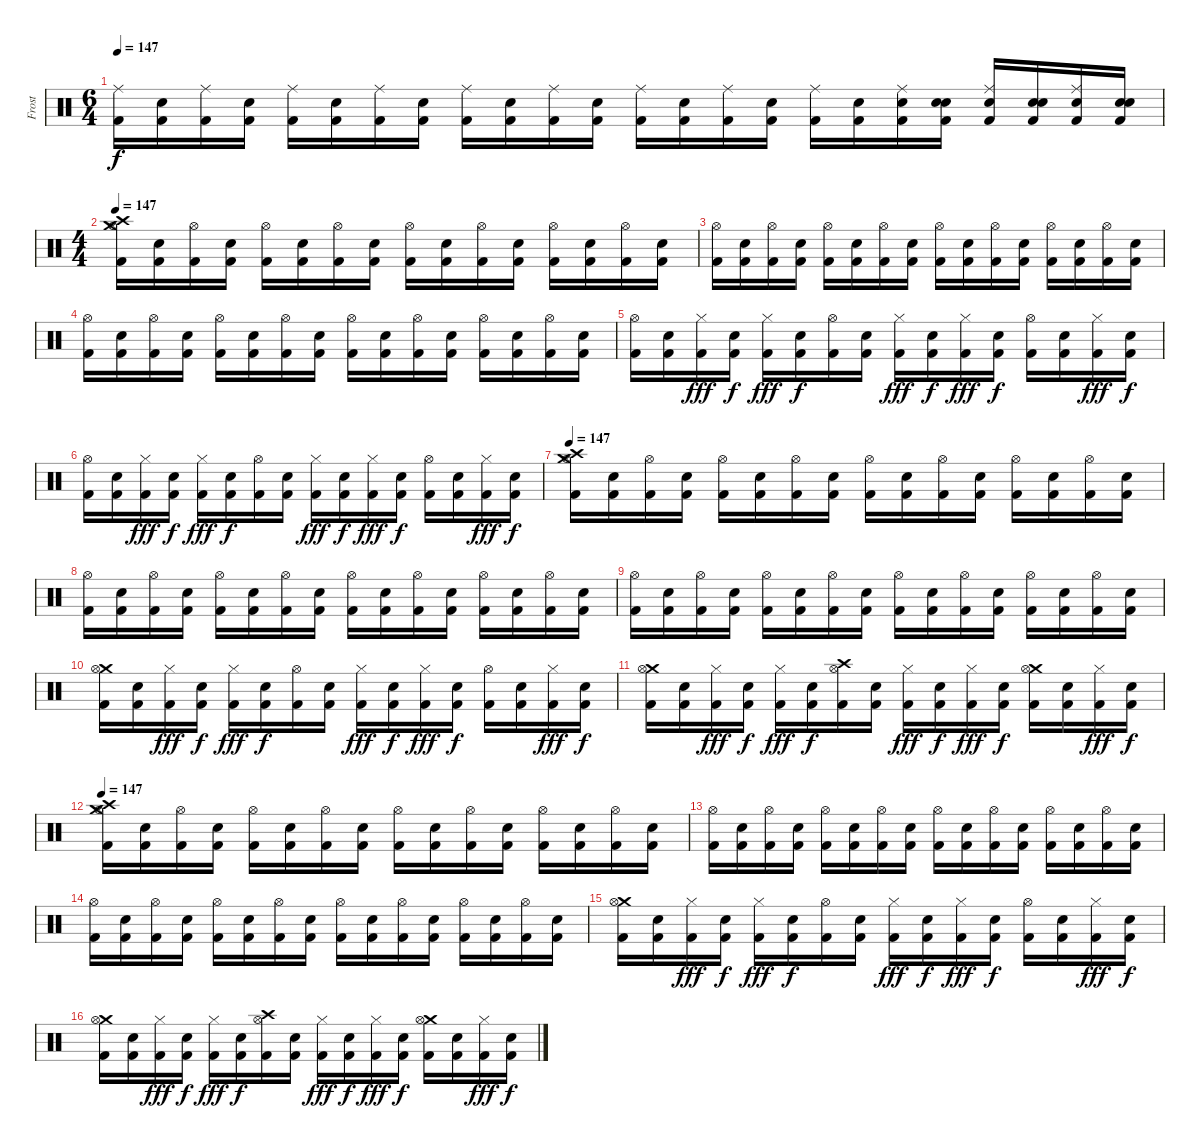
\track ("Frost" "Frost") {instrument percussion}
\staff {score}
\articulation defaults
\ts (6 4)
\tempo 147
\clef neutral
\ks c
("Kick (hit) 2" "Ride (middle)").16{dy f} ("Kick (hit) 2" "Electric Snare (hit)").16 ("Kick (hit) 2" "Ride (middle)").16 ("Kick (hit) 2" "Electric Snare (hit)").16 ("Kick (hit) 2" "Ride (middle)").16 ("Kick (hit) 2" "Electric Snare (hit)").16 ("Kick (hit) 2" "Ride (middle)").16 ("Kick (hit) 2" "Electric Snare (hit)").16 ("Kick (hit) 2" "Ride (middle)").16 ("Kick (hit) 2" "Electric Snare (hit)").16 ("Kick (hit) 2" "Ride (middle)").16 ("Kick (hit) 2" "Electric Snare (hit)").16 ("Kick (hit) 2" "Ride (middle)").16 ("Kick (hit) 2" "Electric Snare (hit)").16 ("Kick (hit) 2" "Ride (middle)").16 ("Kick (hit) 2" "Electric Snare (hit)").16 ("Kick (hit) 2" "Ride (middle)").16 ("Kick (hit) 2" "Electric Snare (hit)").16 ("Kick (hit) 2" "Snare (hit) 2" "Ride (middle)").16 ("Kick (hit) 2" "Snare (hit) 2" "Electric Snare (hit)").16 ("Kick (hit) 2" "Snare (hit) 2" "Ride (middle)").16 ("Kick (hit) 2" "Snare (hit) 2" "Electric Snare (hit)").16 ("Kick (hit) 2" "Snare (hit) 2" "Ride (middle)").16 ("Kick (hit) 2" "Snare (hit) 2" "Electric Snare (hit)").16 |
\ts (4 4)
\tempo 147
("Kick (hit) 2" "Crash high (hit)" "Crash medium (hit)" "Hi-Hat (open)").16 ("Kick (hit) 2" "Electric Snare (hit)").16 ("Kick (hit) 2" "Hi-Hat (open)").16 ("Kick (hit) 2" "Electric Snare (hit)").16 ("Kick (hit) 2" "Hi-Hat (open)").16 ("Kick (hit) 2" "Electric Snare (hit)").16 ("Kick (hit) 2" "Hi-Hat (open)").16 ("Kick (hit) 2" "Electric Snare (hit)").16 ("Kick (hit) 2" "Hi-Hat (open)").16 ("Kick (hit) 2" "Electric Snare (hit)").16 ("Kick (hit) 2" "Hi-Hat (open)").16 ("Kick (hit) 2" "Electric Snare (hit)").16 ("Kick (hit) 2" "Hi-Hat (open)").16 ("Kick (hit) 2" "Electric Snare (hit)").16 ("Kick (hit) 2" "Hi-Hat (open)").16 ("Kick (hit) 2" "Electric Snare (hit)").16 |
("Kick (hit) 2" "Hi-Hat (open)").16 ("Kick (hit) 2" "Electric Snare (hit)").16 ("Kick (hit) 2" "Hi-Hat (open)").16 ("Kick (hit) 2" "Electric Snare (hit)").16 ("Kick (hit) 2" "Hi-Hat (open)").16 ("Kick (hit) 2" "Electric Snare (hit)").16 ("Kick (hit) 2" "Hi-Hat (open)").16 ("Kick (hit) 2" "Electric Snare (hit)").16 ("Kick (hit) 2" "Hi-Hat (open)").16 ("Kick (hit) 2" "Electric Snare (hit)").16 ("Kick (hit) 2" "Hi-Hat (open)").16 ("Kick (hit) 2" "Electric Snare (hit)").16 ("Kick (hit) 2" "Hi-Hat (open)").16 ("Kick (hit) 2" "Electric Snare (hit)").16 ("Kick (hit) 2" "Hi-Hat (open)").16 ("Kick (hit) 2" "Electric Snare (hit)").16 |
("Kick (hit) 2" "Hi-Hat (open)").16 ("Kick (hit) 2" "Electric Snare (hit)").16 ("Kick (hit) 2" "Hi-Hat (open)").16 ("Kick (hit) 2" "Electric Snare (hit)").16 ("Kick (hit) 2" "Hi-Hat (open)").16 ("Kick (hit) 2" "Electric Snare (hit)").16 ("Kick (hit) 2" "Hi-Hat (open)").16 ("Kick (hit) 2" "Electric Snare (hit)").16 ("Kick (hit) 2" "Hi-Hat (open)").16 ("Kick (hit) 2" "Electric Snare (hit)").16 ("Kick (hit) 2" "Hi-Hat (open)").16 ("Kick (hit) 2" "Electric Snare (hit)").16 ("Kick (hit) 2" "Hi-Hat (open)").16 ("Kick (hit) 2" "Electric Snare (hit)").16 ("Kick (hit) 2" "Hi-Hat (open)").16 ("Kick (hit) 2" "Electric Snare (hit)").16 |
("Kick (hit) 2" "Hi-Hat (open)").16 ("Kick (hit) 2" "Electric Snare (hit)").16 ("Kick (hit) 2" "Hi-Hat (closed)").16{dy fff} ("Kick (hit) 2" "Electric Snare (hit)").16{dy f} ("Kick (hit) 2" "Hi-Hat (closed)").16{dy fff} ("Kick (hit) 2" "Electric Snare (hit)").16{dy f} ("Kick (hit) 2" "Hi-Hat (open)").16 ("Kick (hit) 2" "Electric Snare (hit)").16 ("Kick (hit) 2" "Hi-Hat (closed)").16{dy fff} ("Kick (hit) 2" "Electric Snare (hit)").16{dy f} ("Kick (hit) 2" "Hi-Hat (closed)").16{dy fff} ("Kick (hit) 2" "Electric Snare (hit)").16{dy f} ("Kick (hit) 2" "Hi-Hat (open)").16 ("Kick (hit) 2" "Electric Snare (hit)").16 ("Kick (hit) 2" "Hi-Hat (closed)").16{dy fff} ("Kick (hit) 2" "Electric Snare (hit)").16{dy f} |
("Kick (hit) 2" "Hi-Hat (open)").16 ("Kick (hit) 2" "Electric Snare (hit)").16 ("Kick (hit) 2" "Hi-Hat (closed)").16{dy fff} ("Kick (hit) 2" "Electric Snare (hit)").16{dy f} ("Kick (hit) 2" "Hi-Hat (closed)").16{dy fff} ("Kick (hit) 2" "Electric Snare (hit)").16{dy f} ("Kick (hit) 2" "Hi-Hat (open)").16 ("Kick (hit) 2" "Electric Snare (hit)").16 ("Kick (hit) 2" "Hi-Hat (closed)").16{dy fff} ("Kick (hit) 2" "Electric Snare (hit)").16{dy f} ("Kick (hit) 2" "Hi-Hat (closed)").16{dy fff} ("Kick (hit) 2" "Electric Snare (hit)").16{dy f} ("Kick (hit) 2" "Hi-Hat (open)").16 ("Kick (hit) 2" "Electric Snare (hit)").16 ("Kick (hit) 2" "Hi-Hat (closed)").16{dy fff} ("Kick (hit) 2" "Electric Snare (hit)").16{dy f} |
\tempo 147
("Kick (hit) 2" "Crash high (hit)" "Crash medium (hit)" "Hi-Hat (open)").16 ("Kick (hit) 2" "Electric Snare (hit)").16 ("Kick (hit) 2" "Hi-Hat (open)").16 ("Kick (hit) 2" "Electric Snare (hit)").16 ("Kick (hit) 2" "Hi-Hat (open)").16 ("Kick (hit) 2" "Electric Snare (hit)").16 ("Kick (hit) 2" "Hi-Hat (open)").16 ("Kick (hit) 2" "Electric Snare (hit)").16 ("Kick (hit) 2" "Hi-Hat (open)").16 ("Kick (hit) 2" "Electric Snare (hit)").16 ("Kick (hit) 2" "Hi-Hat (open)").16 ("Kick (hit) 2" "Electric Snare (hit)").16 ("Kick (hit) 2" "Hi-Hat (open)").16 ("Kick (hit) 2" "Electric Snare (hit)").16 ("Kick (hit) 2" "Hi-Hat (open)").16 ("Kick (hit) 2" "Electric Snare (hit)").16 |
("Kick (hit) 2" "Hi-Hat (open)").16 ("Kick (hit) 2" "Electric Snare (hit)").16 ("Kick (hit) 2" "Hi-Hat (open)").16 ("Kick (hit) 2" "Electric Snare (hit)").16 ("Kick (hit) 2" "Hi-Hat (open)").16 ("Kick (hit) 2" "Electric Snare (hit)").16 ("Kick (hit) 2" "Hi-Hat (open)").16 ("Kick (hit) 2" "Electric Snare (hit)").16 ("Kick (hit) 2" "Hi-Hat (open)").16 ("Kick (hit) 2" "Electric Snare (hit)").16 ("Kick (hit) 2" "Hi-Hat (open)").16 ("Kick (hit) 2" "Electric Snare (hit)").16 ("Kick (hit) 2" "Hi-Hat (open)").16 ("Kick (hit) 2" "Electric Snare (hit)").16 ("Kick (hit) 2" "Hi-Hat (open)").16 ("Kick (hit) 2" "Electric Snare (hit)").16 |
("Kick (hit) 2" "Hi-Hat (open)").16 ("Kick (hit) 2" "Electric Snare (hit)").16 ("Kick (hit) 2" "Hi-Hat (open)").16 ("Kick (hit) 2" "Electric Snare (hit)").16 ("Kick (hit) 2" "Hi-Hat (open)").16 ("Kick (hit) 2" "Electric Snare (hit)").16 ("Kick (hit) 2" "Hi-Hat (open)").16 ("Kick (hit) 2" "Electric Snare (hit)").16 ("Kick (hit) 2" "Hi-Hat (open)").16 ("Kick (hit) 2" "Electric Snare (hit)").16 ("Kick (hit) 2" "Hi-Hat (open)").16 ("Kick (hit) 2" "Electric Snare (hit)").16 ("Kick (hit) 2" "Hi-Hat (open)").16 ("Kick (hit) 2" "Electric Snare (hit)").16 ("Kick (hit) 2" "Hi-Hat (open)").16 ("Kick (hit) 2" "Electric Snare (hit)").16 |
("Kick (hit) 2" "Crash medium (hit)" "Hi-Hat (open)").16 ("Kick (hit) 2" "Electric Snare (hit)").16 ("Kick (hit) 2" "Hi-Hat (closed)").16{dy fff} ("Kick (hit) 2" "Electric Snare (hit)").16{dy f} ("Kick (hit) 2" "Hi-Hat (closed)").16{dy fff} ("Kick (hit) 2" "Electric Snare (hit)").16{dy f} ("Kick (hit) 2" "Hi-Hat (open)").16 ("Kick (hit) 2" "Electric Snare (hit)").16 ("Kick (hit) 2" "Hi-Hat (closed)").16{dy fff} ("Kick (hit) 2" "Electric Snare (hit)").16{dy f} ("Kick (hit) 2" "Hi-Hat (closed)").16{dy fff} ("Kick (hit) 2" "Electric Snare (hit)").16{dy f} ("Kick (hit) 2" "Hi-Hat (open)").16 ("Kick (hit) 2" "Electric Snare (hit)").16 ("Kick (hit) 2" "Hi-Hat (closed)").16{dy fff} ("Kick (hit) 2" "Electric Snare (hit)").16{dy f} |
("Kick (hit) 2" "Crash medium (hit)" "Hi-Hat (open)").16 ("Kick (hit) 2" "Electric Snare (hit)").16 ("Kick (hit) 2" "Hi-Hat (closed)").16{dy fff} ("Kick (hit) 2" "Electric Snare (hit)").16{dy f} ("Kick (hit) 2" "Hi-Hat (closed)").16{dy fff} ("Kick (hit) 2" "Electric Snare (hit)").16{dy f} ("Kick (hit) 2" "Crash high (hit)" "Hi-Hat (open)").16 ("Kick (hit) 2" "Electric Snare (hit)").16 ("Kick (hit) 2" "Hi-Hat (closed)").16{dy fff} ("Kick (hit) 2" "Electric Snare (hit)").16{dy f} ("Kick (hit) 2" "Hi-Hat (closed)").16{dy fff} ("Kick (hit) 2" "Electric Snare (hit)").16{dy f} ("Kick (hit) 2" "Crash medium (hit)" "Hi-Hat (open)").16 ("Kick (hit) 2" "Electric Snare (hit)").16 ("Kick (hit) 2" "Hi-Hat (closed)").16{dy fff} ("Kick (hit) 2" "Electric Snare (hit)").16{dy f} |
\tempo 147
("Kick (hit) 2" "Crash high (hit)" "Crash medium (hit)" "Hi-Hat (open)").16 ("Kick (hit) 2" "Electric Snare (hit)").16 ("Kick (hit) 2" "Hi-Hat (open)").16 ("Kick (hit) 2" "Electric Snare (hit)").16 ("Kick (hit) 2" "Hi-Hat (open)").16 ("Kick (hit) 2" "Electric Snare (hit)").16 ("Kick (hit) 2" "Hi-Hat (open)").16 ("Kick (hit) 2" "Electric Snare (hit)").16 ("Kick (hit) 2" "Hi-Hat (open)").16 ("Kick (hit) 2" "Electric Snare (hit)").16 ("Kick (hit) 2" "Hi-Hat (open)").16 ("Kick (hit) 2" "Electric Snare (hit)").16 ("Kick (hit) 2" "Hi-Hat (open)").16 ("Kick (hit) 2" "Electric Snare (hit)").16 ("Kick (hit) 2" "Hi-Hat (open)").16 ("Kick (hit) 2" "Electric Snare (hit)").16 |
("Kick (hit) 2" "Hi-Hat (open)").16 ("Kick (hit) 2" "Electric Snare (hit)").16 ("Kick (hit) 2" "Hi-Hat (open)").16 ("Kick (hit) 2" "Electric Snare (hit)").16 ("Kick (hit) 2" "Hi-Hat (open)").16 ("Kick (hit) 2" "Electric Snare (hit)").16 ("Kick (hit) 2" "Hi-Hat (open)").16 ("Kick (hit) 2" "Electric Snare (hit)").16 ("Kick (hit) 2" "Hi-Hat (open)").16 ("Kick (hit) 2" "Electric Snare (hit)").16 ("Kick (hit) 2" "Hi-Hat (open)").16 ("Kick (hit) 2" "Electric Snare (hit)").16 ("Kick (hit) 2" "Hi-Hat (open)").16 ("Kick (hit) 2" "Electric Snare (hit)").16 ("Kick (hit) 2" "Hi-Hat (open)").16 ("Kick (hit) 2" "Electric Snare (hit)").16 |
("Kick (hit) 2" "Hi-Hat (open)").16 ("Kick (hit) 2" "Electric Snare (hit)").16 ("Kick (hit) 2" "Hi-Hat (open)").16 ("Kick (hit) 2" "Electric Snare (hit)").16 ("Kick (hit) 2" "Hi-Hat (open)").16 ("Kick (hit) 2" "Electric Snare (hit)").16 ("Kick (hit) 2" "Hi-Hat (open)").16 ("Kick (hit) 2" "Electric Snare (hit)").16 ("Kick (hit) 2" "Hi-Hat (open)").16 ("Kick (hit) 2" "Electric Snare (hit)").16 ("Kick (hit) 2" "Hi-Hat (open)").16 ("Kick (hit) 2" "Electric Snare (hit)").16 ("Kick (hit) 2" "Hi-Hat (open)").16 ("Kick (hit) 2" "Electric Snare (hit)").16 ("Kick (hit) 2" "Hi-Hat (open)").16 ("Kick (hit) 2" "Electric Snare (hit)").16 |
("Kick (hit) 2" "Crash medium (hit)" "Hi-Hat (open)").16 ("Kick (hit) 2" "Electric Snare (hit)").16 ("Kick (hit) 2" "Hi-Hat (closed)").16{dy fff} ("Kick (hit) 2" "Electric Snare (hit)").16{dy f} ("Kick (hit) 2" "Hi-Hat (closed)").16{dy fff} ("Kick (hit) 2" "Electric Snare (hit)").16{dy f} ("Kick (hit) 2" "Hi-Hat (open)").16 ("Kick (hit) 2" "Electric Snare (hit)").16 ("Kick (hit) 2" "Hi-Hat (closed)").16{dy fff} ("Kick (hit) 2" "Electric Snare (hit)").16{dy f} ("Kick (hit) 2" "Hi-Hat (closed)").16{dy fff} ("Kick (hit) 2" "Electric Snare (hit)").16{dy f} ("Kick (hit) 2" "Hi-Hat (open)").16 ("Kick (hit) 2" "Electric Snare (hit)").16 ("Kick (hit) 2" "Hi-Hat (closed)").16{dy fff} ("Kick (hit) 2" "Electric Snare (hit)").16{dy f} |
("Kick (hit) 2" "Crash medium (hit)" "Hi-Hat (open)").16 ("Kick (hit) 2" "Electric Snare (hit)").16 ("Kick (hit) 2" "Hi-Hat (closed)").16{dy fff} ("Kick (hit) 2" "Electric Snare (hit)").16{dy f} ("Kick (hit) 2" "Hi-Hat (closed)").16{dy fff} ("Kick (hit) 2" "Electric Snare (hit)").16{dy f} ("Kick (hit) 2" "Crash high (hit)" "Hi-Hat (open)").16 ("Kick (hit) 2" "Electric Snare (hit)").16 ("Kick (hit) 2" "Hi-Hat (closed)").16{dy fff} ("Kick (hit) 2" "Electric Snare (hit)").16{dy f} ("Kick (hit) 2" "Hi-Hat (closed)").16{dy fff} ("Kick (hit) 2" "Electric Snare (hit)").16{dy f} ("Kick (hit) 2" "Crash medium (hit)" "Hi-Hat (open)").16 ("Kick (hit) 2" "Electric Snare (hit)").16 ("Kick (hit) 2" "Hi-Hat (closed)").16{dy fff} ("Kick (hit) 2" "Electric Snare (hit)").16{dy f}
